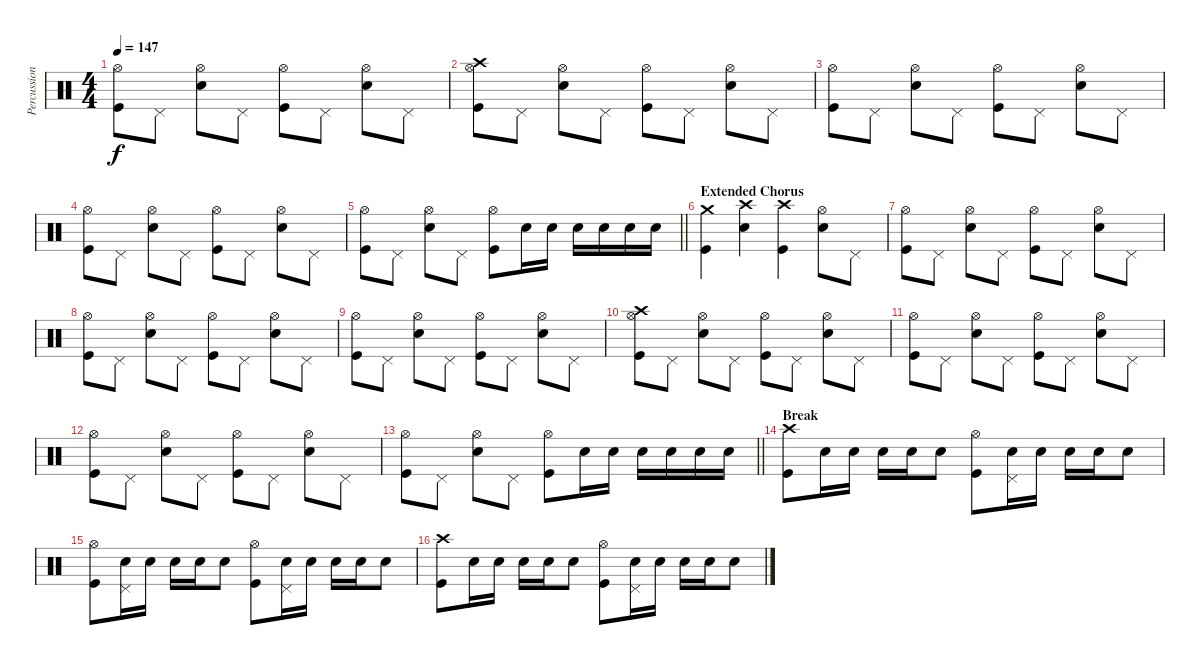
\track ("Percussion" "Percussion") {instrument percussion}
\staff {score}
\articulation defaults
\ts (4 4)
\tempo 147
\clef neutral
\ks c
("Hi-Hat (open)" "Kick (hit)").8{dy f} "Pedal Hi-Hat (hit)".8 ("Hi-Hat (open)" "Electric Snare (hit)").8 "Pedal Hi-Hat (hit)".8 ("Hi-Hat (open)" "Kick (hit)").8 "Pedal Hi-Hat (hit)".8 ("Hi-Hat (open)" "Electric Snare (hit)").8 "Pedal Hi-Hat (hit)".8 |
("Crash high (hit)" "Hi-Hat (open)" "Kick (hit)").8 "Pedal Hi-Hat (hit)".8 ("Hi-Hat (open)" "Electric Snare (hit)").8 "Pedal Hi-Hat (hit)".8 ("Hi-Hat (open)" "Kick (hit)").8 "Pedal Hi-Hat (hit)".8 ("Hi-Hat (open)" "Electric Snare (hit)").8 "Pedal Hi-Hat (hit)".8 |
("Hi-Hat (open)" "Kick (hit)").8 "Pedal Hi-Hat (hit)".8 ("Hi-Hat (open)" "Electric Snare (hit)").8 "Pedal Hi-Hat (hit)".8 ("Hi-Hat (open)" "Kick (hit)").8 "Pedal Hi-Hat (hit)".8 ("Hi-Hat (open)" "Electric Snare (hit)").8 "Pedal Hi-Hat (hit)".8 |
("Hi-Hat (open)" "Kick (hit)").8 "Pedal Hi-Hat (hit)".8 ("Hi-Hat (open)" "Electric Snare (hit)").8 "Pedal Hi-Hat (hit)".8 ("Hi-Hat (open)" "Kick (hit)").8 "Pedal Hi-Hat (hit)".8 ("Hi-Hat (open)" "Electric Snare (hit)").8 "Pedal Hi-Hat (hit)".8 |
\barLineRight lightlight
("Hi-Hat (open)" "Kick (hit)").8 "Pedal Hi-Hat (hit)".8 ("Hi-Hat (open)" "Electric Snare (hit)").8 "Pedal Hi-Hat (hit)".8 ("Hi-Hat (open)" "Kick (hit)").8 "Electric Snare (hit)".16 "Electric Snare (hit)".16 "Electric Snare (hit)".16 "Electric Snare (hit)".16 "Electric Snare (hit)".16 "Electric Snare (hit)".16 |
\section ("" "Extended Chorus")
("Crash medium (hit)" "Kick (hit)").4 ("Crash high (hit)" "Electric Snare (hit)").4 ("Crash high (hit)" "Kick (hit)").4 ("Hi-Hat (open)" "Electric Snare (hit)").8 "Pedal Hi-Hat (hit)".8 |
("Hi-Hat (open)" "Kick (hit)").8 "Pedal Hi-Hat (hit)".8 ("Hi-Hat (open)" "Electric Snare (hit)").8 "Pedal Hi-Hat (hit)".8 ("Hi-Hat (open)" "Kick (hit)").8 "Pedal Hi-Hat (hit)".8 ("Hi-Hat (open)" "Electric Snare (hit)").8 "Pedal Hi-Hat (hit)".8 |
("Hi-Hat (open)" "Kick (hit)").8 "Pedal Hi-Hat (hit)".8 ("Hi-Hat (open)" "Electric Snare (hit)").8 "Pedal Hi-Hat (hit)".8 ("Hi-Hat (open)" "Kick (hit)").8 "Pedal Hi-Hat (hit)".8 ("Hi-Hat (open)" "Electric Snare (hit)").8 "Pedal Hi-Hat (hit)".8 |
("Hi-Hat (open)" "Kick (hit)").8 "Pedal Hi-Hat (hit)".8 ("Hi-Hat (open)" "Electric Snare (hit)").8 "Pedal Hi-Hat (hit)".8 ("Hi-Hat (open)" "Kick (hit)").8 "Pedal Hi-Hat (hit)".8 ("Hi-Hat (open)" "Electric Snare (hit)").8 "Pedal Hi-Hat (hit)".8 |
("Crash high (hit)" "Hi-Hat (open)" "Kick (hit)").8 "Pedal Hi-Hat (hit)".8 ("Hi-Hat (open)" "Electric Snare (hit)").8 "Pedal Hi-Hat (hit)".8 ("Hi-Hat (open)" "Kick (hit)").8 "Pedal Hi-Hat (hit)".8 ("Hi-Hat (open)" "Electric Snare (hit)").8 "Pedal Hi-Hat (hit)".8 |
("Hi-Hat (open)" "Kick (hit)").8 "Pedal Hi-Hat (hit)".8 ("Hi-Hat (open)" "Electric Snare (hit)").8 "Pedal Hi-Hat (hit)".8 ("Hi-Hat (open)" "Kick (hit)").8 "Pedal Hi-Hat (hit)".8 ("Hi-Hat (open)" "Electric Snare (hit)").8 "Pedal Hi-Hat (hit)".8 |
("Hi-Hat (open)" "Kick (hit)").8 "Pedal Hi-Hat (hit)".8 ("Hi-Hat (open)" "Electric Snare (hit)").8 "Pedal Hi-Hat (hit)".8 ("Hi-Hat (open)" "Kick (hit)").8 "Pedal Hi-Hat (hit)".8 ("Hi-Hat (open)" "Electric Snare (hit)").8 "Pedal Hi-Hat (hit)".8 |
\barLineRight lightlight
("Hi-Hat (open)" "Kick (hit)").8 "Pedal Hi-Hat (hit)".8 ("Hi-Hat (open)" "Electric Snare (hit)").8 "Pedal Hi-Hat (hit)".8 ("Hi-Hat (open)" "Kick (hit)").8 "Electric Snare (hit)".16 "Electric Snare (hit)".16 "Electric Snare (hit)".16 "Electric Snare (hit)".16 "Electric Snare (hit)".16 "Electric Snare (hit)".16 |
\section ("" "Break")
("Crash high (hit)" "Kick (hit)").8 "Electric Snare (hit)".16 "Electric Snare (hit)".16 "Electric Snare (hit)".16 "Electric Snare (hit)".16 "Electric Snare (hit)".8 ("Hi-Hat (open)" "Kick (hit)").8 ("Pedal Hi-Hat (hit)" "Electric Snare (hit)").16 "Electric Snare (hit)".16 "Electric Snare (hit)".16 "Electric Snare (hit)".16 "Electric Snare (hit)".8 |
("Hi-Hat (open)" "Kick (hit)").8 ("Pedal Hi-Hat (hit)" "Electric Snare (hit)").16 "Electric Snare (hit)".16 "Electric Snare (hit)".16 "Electric Snare (hit)".16 "Electric Snare (hit)".8 ("Hi-Hat (open)" "Kick (hit)").8 ("Pedal Hi-Hat (hit)" "Electric Snare (hit)").16 "Electric Snare (hit)".16 "Electric Snare (hit)".16 "Electric Snare (hit)".16 "Electric Snare (hit)".8 |
("Crash high (hit)" "Kick (hit)").8 "Electric Snare (hit)".16 "Electric Snare (hit)".16 "Electric Snare (hit)".16 "Electric Snare (hit)".16 "Electric Snare (hit)".8 ("Hi-Hat (open)" "Kick (hit)").8 ("Pedal Hi-Hat (hit)" "Electric Snare (hit)").16 "Electric Snare (hit)".16 "Electric Snare (hit)".16 "Electric Snare (hit)".16 "Electric Snare (hit)".8
